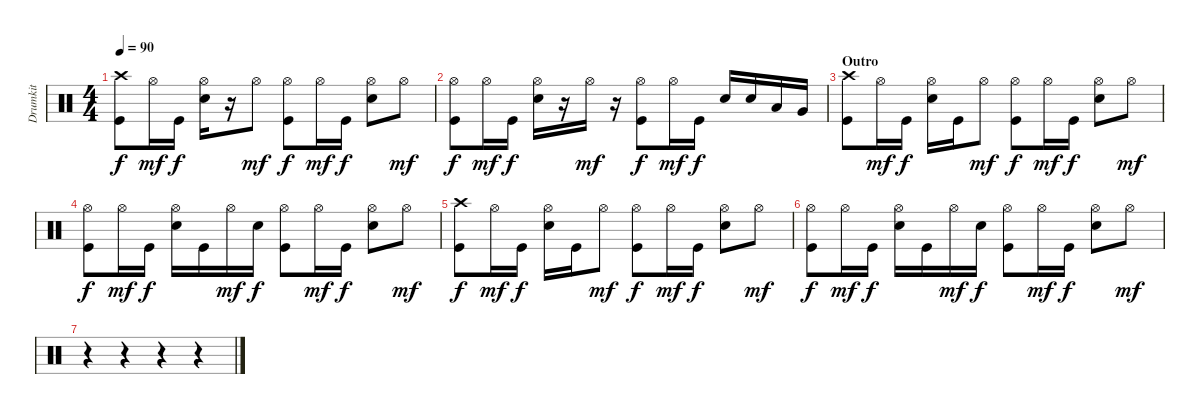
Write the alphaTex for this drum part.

\track ("Drumkit" "Drumkit") {instrument percussion}
\staff {score}
\articulation defaults
\ts (4 4)
\tempo 90
\clef neutral
\ks c
("Crash high (hit)" "Kick (hit)").8{dy f} "Hi-Hat (open)".16{dy mf} "Kick (hit)".16{dy f} ("Hi-Hat (open)" "Snare (hit) 2").16 r.16 "Hi-Hat (open)".8{dy mf} ("Hi-Hat (open)" "Kick (hit)").8{dy f} "Hi-Hat (open)".16{dy mf} "Kick (hit)".16{dy f} ("Hi-Hat (open)" "Snare (hit) 2").8 "Hi-Hat (open)".8{dy mf} |
("Hi-Hat (open)" "Kick (hit)").8{dy f} "Hi-Hat (open)".16{dy mf} "Kick (hit)".16{dy f} ("Hi-Hat (open)" "Snare (hit) 2").16 r.16 "Hi-Hat (open)".16{dy mf} r.16 ("Hi-Hat (open)" "Kick (hit)").8{dy f} "Hi-Hat (open)".16{dy mf} "Kick (hit)".16{dy f} "Snare (hit) 2".16 "Snare (hit) 2".16 "Low Tom (hit)".16 "Very Low Tom (hit)".16 |
\section ("" "Outro")
("Crash high (hit)" "Kick (hit)").8 "Hi-Hat (open)".16{dy mf} "Kick (hit)".16{dy f} ("Hi-Hat (open)" "Snare (hit) 2").16 "Kick (hit)".16 "Hi-Hat (open)".8{dy mf} ("Hi-Hat (open)" "Kick (hit)").8{dy f} "Hi-Hat (open)".16{dy mf} "Kick (hit)".16{dy f} ("Hi-Hat (open)" "Snare (hit) 2").8 "Hi-Hat (open)".8{dy mf} |
("Hi-Hat (open)" "Kick (hit)").8{dy f} "Hi-Hat (open)".16{dy mf} "Kick (hit)".16{dy f} ("Hi-Hat (open)" "Snare (hit) 2").16 "Kick (hit)".16 "Hi-Hat (open)".16{dy mf} "Snare (hit) 2".16{dy f} ("Hi-Hat (open)" "Kick (hit)").8 "Hi-Hat (open)".16{dy mf} "Kick (hit)".16{dy f} ("Hi-Hat (open)" "Snare (hit) 2").8 "Hi-Hat (open)".8{dy mf} |
("Crash high (hit)" "Kick (hit)").8{dy f} "Hi-Hat (open)".16{dy mf} "Kick (hit)".16{dy f} ("Hi-Hat (open)" "Snare (hit) 2").16 "Kick (hit)".16 "Hi-Hat (open)".8{dy mf} ("Hi-Hat (open)" "Kick (hit)").8{dy f} "Hi-Hat (open)".16{dy mf} "Kick (hit)".16{dy f} ("Hi-Hat (open)" "Snare (hit) 2").8 "Hi-Hat (open)".8{dy mf} |
("Hi-Hat (open)" "Kick (hit)").8{dy f} "Hi-Hat (open)".16{dy mf} "Kick (hit)".16{dy f} ("Hi-Hat (open)" "Snare (hit) 2").16 "Kick (hit)".16 "Hi-Hat (open)".16{dy mf} "Snare (hit) 2".16{dy f} ("Hi-Hat (open)" "Kick (hit)").8 "Hi-Hat (open)".16{dy mf} "Kick (hit)".16{dy f} ("Hi-Hat (open)" "Snare (hit) 2").8 "Hi-Hat (open)".8{dy mf} |
r.4 r.4 r.4 r.4
